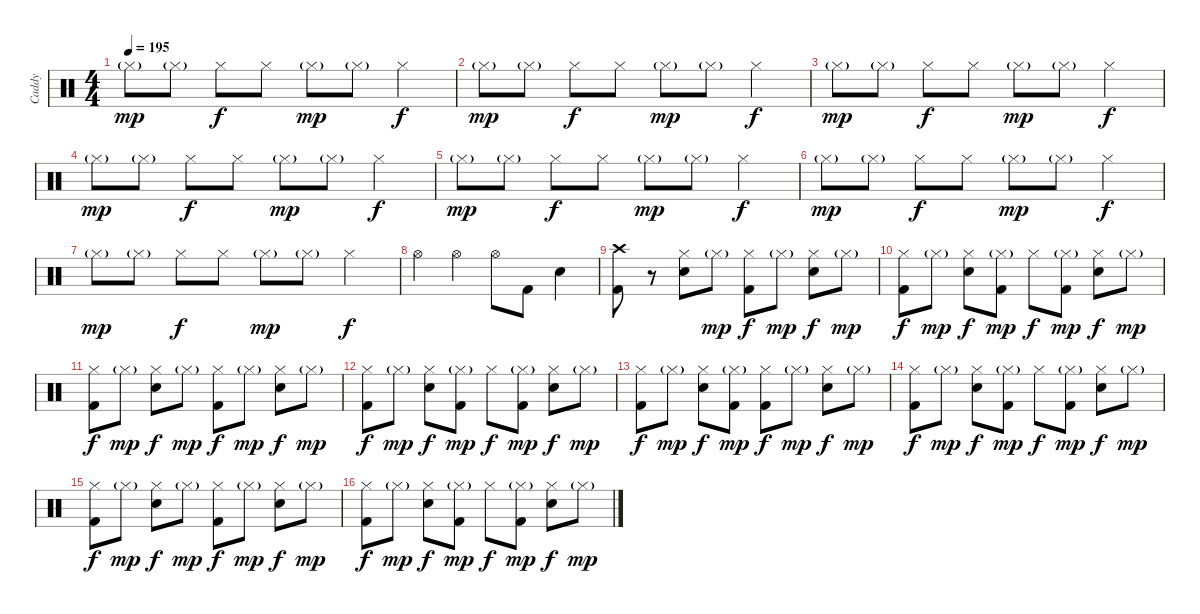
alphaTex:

\track ("Caddy" "Caddy") {instrument percussion}
\staff {score}
\articulation defaults
\ts (4 4)
\tempo 195
\clef neutral
\ks c "Hi-Hat (closed)"{g}.8{dy mp} "Hi-Hat (closed)"{g}.8 "Hi-Hat (closed)".8{dy f} "Hi-Hat (closed)".8 "Hi-Hat (closed)"{g}.8{dy mp} "Hi-Hat (closed)"{g}.8 "Hi-Hat (closed)".4{dy f}
|
"Hi-Hat (closed)"{g}.8{dy mp} "Hi-Hat (closed)"{g}.8 "Hi-Hat (closed)".8{dy f} "Hi-Hat (closed)".8 "Hi-Hat (closed)"{g}.8{dy mp} "Hi-Hat (closed)"{g}.8 "Hi-Hat (closed)".4{dy f} |
"Hi-Hat (closed)"{g}.8{dy mp} "Hi-Hat (closed)"{g}.8 "Hi-Hat (closed)".8{dy f} "Hi-Hat (closed)".8 "Hi-Hat (closed)"{g}.8{dy mp} "Hi-Hat (closed)"{g}.8 "Hi-Hat (closed)".4{dy f} |
"Hi-Hat (closed)"{g}.8{dy mp} "Hi-Hat (closed)"{g}.8 "Hi-Hat (closed)".8{dy f} "Hi-Hat (closed)".8 "Hi-Hat (closed)"{g}.8{dy mp} "Hi-Hat (closed)"{g}.8 "Hi-Hat (closed)".4{dy f} |
"Hi-Hat (closed)"{g}.8{dy mp} "Hi-Hat (closed)"{g}.8 "Hi-Hat (closed)".8{dy f} "Hi-Hat (closed)".8 "Hi-Hat (closed)"{g}.8{dy mp} "Hi-Hat (closed)"{g}.8 "Hi-Hat (closed)".4{dy f} |
"Hi-Hat (closed)"{g}.8{dy mp} "Hi-Hat (closed)"{g}.8 "Hi-Hat (closed)".8{dy f} "Hi-Hat (closed)".8 "Hi-Hat (closed)"{g}.8{dy mp} "Hi-Hat (closed)"{g}.8 "Hi-Hat (closed)".4{dy f} |
"Hi-Hat (closed)"{g}.8{dy mp} "Hi-Hat (closed)"{g}.8 "Hi-Hat (closed)".8{dy f} "Hi-Hat (closed)".8 "Hi-Hat (closed)"{g}.8{dy mp} "Hi-Hat (closed)"{g}.8 "Hi-Hat (closed)".4{dy f} |
"Hi-Hat (open)".4 "Hi-Hat (open)".4 "Hi-Hat (open)".8 "Kick (hit) 2".8 "Electric Snare (hit)".4 |
("Crash high (hit)" "Kick (hit) 2").8 r.8 ("Hi-Hat (closed)" "Electric Snare (hit)").8 "Hi-Hat (closed)"{g}.8{dy mp} ("Hi-Hat (closed)" "Kick (hit) 2").8{dy f} "Hi-Hat (closed)"{g}.8{dy mp} ("Hi-Hat (closed)" "Electric Snare (hit)").8{dy f} "Hi-Hat (closed)"{g}.8{dy mp} |
("Hi-Hat (closed)" "Kick (hit) 2").8{dy f} "Hi-Hat (closed)"{g}.8{dy mp} ("Hi-Hat (closed)" "Electric Snare (hit)").8{dy f} ("Hi-Hat (closed)"{g} "Kick (hit) 2").8{dy mp} "Hi-Hat (closed)".8{dy f} ("Hi-Hat (closed)"{g} "Kick (hit) 2").8{dy mp} ("Hi-Hat (closed)" "Electric Snare (hit)").8{dy f} "Hi-Hat (closed)"{g}.8{dy mp} |
("Hi-Hat (closed)" "Kick (hit) 2").8{dy f} "Hi-Hat (closed)"{g}.8{dy mp} ("Hi-Hat (closed)" "Electric Snare (hit)").8{dy f} "Hi-Hat (closed)"{g}.8{dy mp} ("Hi-Hat (closed)" "Kick (hit) 2").8{dy f} "Hi-Hat (closed)"{g}.8{dy mp} ("Hi-Hat (closed)" "Electric Snare (hit)").8{dy f} "Hi-Hat (closed)"{g}.8{dy mp} |
("Hi-Hat (closed)" "Kick (hit) 2").8{dy f} "Hi-Hat (closed)"{g}.8{dy mp} ("Hi-Hat (closed)" "Electric Snare (hit)").8{dy f} ("Hi-Hat (closed)"{g} "Kick (hit) 2").8{dy mp} "Hi-Hat (closed)".8{dy f} ("Hi-Hat (closed)"{g} "Kick (hit) 2").8{dy mp} ("Hi-Hat (closed)" "Electric Snare (hit)").8{dy f} "Hi-Hat (closed)"{g}.8{dy mp} |
("Hi-Hat (closed)" "Kick (hit) 2").8{dy f} "Hi-Hat (closed)"{g}.8{dy mp} ("Hi-Hat (closed)" "Electric Snare (hit)").8{dy f} ("Hi-Hat (closed)"{g} "Kick (hit) 2").8{dy mp} ("Hi-Hat (closed)" "Kick (hit) 2").8{dy f} "Hi-Hat (closed)"{g}.8{dy mp} ("Hi-Hat (closed)" "Electric Snare (hit)").8{dy f} "Hi-Hat (closed)"{g}.8{dy mp} |
("Hi-Hat (closed)" "Kick (hit) 2").8{dy f} "Hi-Hat (closed)"{g}.8{dy mp} ("Hi-Hat (closed)" "Electric Snare (hit)").8{dy f} ("Hi-Hat (closed)"{g} "Kick (hit) 2").8{dy mp} "Hi-Hat (closed)".8{dy f} ("Hi-Hat (closed)"{g} "Kick (hit) 2").8{dy mp} ("Hi-Hat (closed)" "Electric Snare (hit)").8{dy f} "Hi-Hat (closed)"{g}.8{dy mp} |
("Hi-Hat (closed)" "Kick (hit) 2").8{dy f} "Hi-Hat (closed)"{g}.8{dy mp} ("Hi-Hat (closed)" "Electric Snare (hit)").8{dy f} "Hi-Hat (closed)"{g}.8{dy mp} ("Hi-Hat (closed)" "Kick (hit) 2").8{dy f} "Hi-Hat (closed)"{g}.8{dy mp} ("Hi-Hat (closed)" "Electric Snare (hit)").8{dy f} "Hi-Hat (closed)"{g}.8{dy mp} |
("Hi-Hat (closed)" "Kick (hit) 2").8{dy f} "Hi-Hat (closed)"{g}.8{dy mp} ("Hi-Hat (closed)" "Electric Snare (hit)").8{dy f} ("Hi-Hat (closed)"{g} "Kick (hit) 2").8{dy mp} "Hi-Hat (closed)".8{dy f} ("Hi-Hat (closed)"{g} "Kick (hit) 2").8{dy mp} ("Hi-Hat (closed)" "Electric Snare (hit)").8{dy f} "Hi-Hat (closed)"{g}.8{dy mp}
